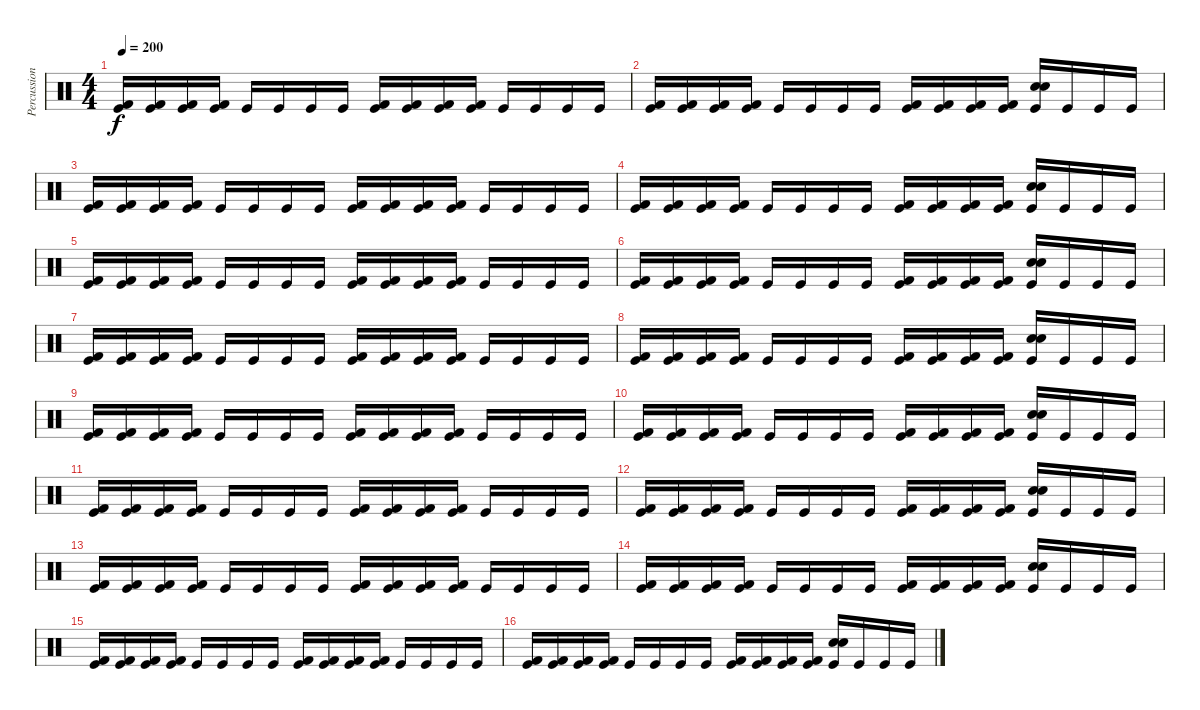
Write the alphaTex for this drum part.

\track ("Percussion" "Percussion") {instrument percussion}
\staff {score}
\articulation defaults
\ts (4 4)
\tempo 200
\clef neutral
\ks c
("Kick (hit) 2" "Kick (hit)").16{dy f} ("Kick (hit) 2" "Kick (hit)").16 ("Kick (hit) 2" "Kick (hit)").16 ("Kick (hit) 2" "Kick (hit)").16 "Kick (hit)".16 "Kick (hit)".16 "Kick (hit)".16 "Kick (hit)".16 ("Kick (hit) 2" "Kick (hit)").16 ("Kick (hit) 2" "Kick (hit)").16 ("Kick (hit) 2" "Kick (hit)").16 ("Kick (hit) 2" "Kick (hit)").16 "Kick (hit)".16 "Kick (hit)".16 "Kick (hit)".16 "Kick (hit)".16 |
("Kick (hit) 2" "Kick (hit)").16 ("Kick (hit) 2" "Kick (hit)").16 ("Kick (hit) 2" "Kick (hit)").16 ("Kick (hit) 2" "Kick (hit)").16 "Kick (hit)".16 "Kick (hit)".16 "Kick (hit)".16 "Kick (hit)".16 ("Kick (hit) 2" "Kick (hit)").16 ("Kick (hit) 2" "Kick (hit)").16 ("Kick (hit) 2" "Kick (hit)").16 ("Kick (hit) 2" "Kick (hit)").16 ("Snare (hit) 2" "Snare (hit) 2" "Kick (hit)").16 "Kick (hit)".16 "Kick (hit)".16 "Kick (hit)".16 |
("Kick (hit) 2" "Kick (hit)").16 ("Kick (hit) 2" "Kick (hit)").16 ("Kick (hit) 2" "Kick (hit)").16 ("Kick (hit) 2" "Kick (hit)").16 "Kick (hit)".16 "Kick (hit)".16 "Kick (hit)".16 "Kick (hit)".16 ("Kick (hit) 2" "Kick (hit)").16 ("Kick (hit) 2" "Kick (hit)").16 ("Kick (hit) 2" "Kick (hit)").16 ("Kick (hit) 2" "Kick (hit)").16 "Kick (hit)".16 "Kick (hit)".16 "Kick (hit)".16 "Kick (hit)".16 |
("Kick (hit) 2" "Kick (hit)").16 ("Kick (hit) 2" "Kick (hit)").16 ("Kick (hit) 2" "Kick (hit)").16 ("Kick (hit) 2" "Kick (hit)").16 "Kick (hit)".16 "Kick (hit)".16 "Kick (hit)".16 "Kick (hit)".16 ("Kick (hit) 2" "Kick (hit)").16 ("Kick (hit) 2" "Kick (hit)").16 ("Kick (hit) 2" "Kick (hit)").16 ("Kick (hit) 2" "Kick (hit)").16 ("Snare (hit) 2" "Snare (hit) 2" "Kick (hit)").16 "Kick (hit)".16 "Kick (hit)".16 "Kick (hit)".16 |
("Kick (hit) 2" "Kick (hit)").16 ("Kick (hit) 2" "Kick (hit)").16 ("Kick (hit) 2" "Kick (hit)").16 ("Kick (hit) 2" "Kick (hit)").16 "Kick (hit)".16 "Kick (hit)".16 "Kick (hit)".16 "Kick (hit)".16 ("Kick (hit) 2" "Kick (hit)").16 ("Kick (hit) 2" "Kick (hit)").16 ("Kick (hit) 2" "Kick (hit)").16 ("Kick (hit) 2" "Kick (hit)").16 "Kick (hit)".16 "Kick (hit)".16 "Kick (hit)".16 "Kick (hit)".16 |
("Kick (hit) 2" "Kick (hit)").16 ("Kick (hit) 2" "Kick (hit)").16 ("Kick (hit) 2" "Kick (hit)").16 ("Kick (hit) 2" "Kick (hit)").16 "Kick (hit)".16 "Kick (hit)".16 "Kick (hit)".16 "Kick (hit)".16 ("Kick (hit) 2" "Kick (hit)").16 ("Kick (hit) 2" "Kick (hit)").16 ("Kick (hit) 2" "Kick (hit)").16 ("Kick (hit) 2" "Kick (hit)").16 ("Snare (hit) 2" "Snare (hit) 2" "Kick (hit)").16 "Kick (hit)".16 "Kick (hit)".16 "Kick (hit)".16 |
("Kick (hit) 2" "Kick (hit)").16 ("Kick (hit) 2" "Kick (hit)").16 ("Kick (hit) 2" "Kick (hit)").16 ("Kick (hit) 2" "Kick (hit)").16 "Kick (hit)".16 "Kick (hit)".16 "Kick (hit)".16 "Kick (hit)".16 ("Kick (hit) 2" "Kick (hit)").16 ("Kick (hit) 2" "Kick (hit)").16 ("Kick (hit) 2" "Kick (hit)").16 ("Kick (hit) 2" "Kick (hit)").16 "Kick (hit)".16 "Kick (hit)".16 "Kick (hit)".16 "Kick (hit)".16 |
("Kick (hit) 2" "Kick (hit)").16 ("Kick (hit) 2" "Kick (hit)").16 ("Kick (hit) 2" "Kick (hit)").16 ("Kick (hit) 2" "Kick (hit)").16 "Kick (hit)".16 "Kick (hit)".16 "Kick (hit)".16 "Kick (hit)".16 ("Kick (hit) 2" "Kick (hit)").16 ("Kick (hit) 2" "Kick (hit)").16 ("Kick (hit) 2" "Kick (hit)").16 ("Kick (hit) 2" "Kick (hit)").16 ("Snare (hit) 2" "Snare (hit) 2" "Kick (hit)").16 "Kick (hit)".16 "Kick (hit)".16 "Kick (hit)".16 |
("Kick (hit) 2" "Kick (hit)").16 ("Kick (hit) 2" "Kick (hit)").16 ("Kick (hit) 2" "Kick (hit)").16 ("Kick (hit) 2" "Kick (hit)").16 "Kick (hit)".16 "Kick (hit)".16 "Kick (hit)".16 "Kick (hit)".16 ("Kick (hit) 2" "Kick (hit)").16 ("Kick (hit) 2" "Kick (hit)").16 ("Kick (hit) 2" "Kick (hit)").16 ("Kick (hit) 2" "Kick (hit)").16 "Kick (hit)".16 "Kick (hit)".16 "Kick (hit)".16 "Kick (hit)".16 |
("Kick (hit) 2" "Kick (hit)").16 ("Kick (hit) 2" "Kick (hit)").16 ("Kick (hit) 2" "Kick (hit)").16 ("Kick (hit) 2" "Kick (hit)").16 "Kick (hit)".16 "Kick (hit)".16 "Kick (hit)".16 "Kick (hit)".16 ("Kick (hit) 2" "Kick (hit)").16 ("Kick (hit) 2" "Kick (hit)").16 ("Kick (hit) 2" "Kick (hit)").16 ("Kick (hit) 2" "Kick (hit)").16 ("Snare (hit) 2" "Snare (hit) 2" "Kick (hit)").16 "Kick (hit)".16 "Kick (hit)".16 "Kick (hit)".16 |
("Kick (hit) 2" "Kick (hit)").16 ("Kick (hit) 2" "Kick (hit)").16 ("Kick (hit) 2" "Kick (hit)").16 ("Kick (hit) 2" "Kick (hit)").16 "Kick (hit)".16 "Kick (hit)".16 "Kick (hit)".16 "Kick (hit)".16 ("Kick (hit) 2" "Kick (hit)").16 ("Kick (hit) 2" "Kick (hit)").16 ("Kick (hit) 2" "Kick (hit)").16 ("Kick (hit) 2" "Kick (hit)").16 "Kick (hit)".16 "Kick (hit)".16 "Kick (hit)".16 "Kick (hit)".16 |
("Kick (hit) 2" "Kick (hit)").16 ("Kick (hit) 2" "Kick (hit)").16 ("Kick (hit) 2" "Kick (hit)").16 ("Kick (hit) 2" "Kick (hit)").16 "Kick (hit)".16 "Kick (hit)".16 "Kick (hit)".16 "Kick (hit)".16 ("Kick (hit) 2" "Kick (hit)").16 ("Kick (hit) 2" "Kick (hit)").16 ("Kick (hit) 2" "Kick (hit)").16 ("Kick (hit) 2" "Kick (hit)").16 ("Snare (hit) 2" "Snare (hit) 2" "Kick (hit)").16 "Kick (hit)".16 "Kick (hit)".16 "Kick (hit)".16 |
("Kick (hit) 2" "Kick (hit)").16 ("Kick (hit) 2" "Kick (hit)").16 ("Kick (hit) 2" "Kick (hit)").16 ("Kick (hit) 2" "Kick (hit)").16 "Kick (hit)".16 "Kick (hit)".16 "Kick (hit)".16 "Kick (hit)".16 ("Kick (hit) 2" "Kick (hit)").16 ("Kick (hit) 2" "Kick (hit)").16 ("Kick (hit) 2" "Kick (hit)").16 ("Kick (hit) 2" "Kick (hit)").16 "Kick (hit)".16 "Kick (hit)".16 "Kick (hit)".16 "Kick (hit)".16 |
("Kick (hit) 2" "Kick (hit)").16 ("Kick (hit) 2" "Kick (hit)").16 ("Kick (hit) 2" "Kick (hit)").16 ("Kick (hit) 2" "Kick (hit)").16 "Kick (hit)".16 "Kick (hit)".16 "Kick (hit)".16 "Kick (hit)".16 ("Kick (hit) 2" "Kick (hit)").16 ("Kick (hit) 2" "Kick (hit)").16 ("Kick (hit) 2" "Kick (hit)").16 ("Kick (hit) 2" "Kick (hit)").16 ("Snare (hit) 2" "Snare (hit) 2" "Kick (hit)").16 "Kick (hit)".16 "Kick (hit)".16 "Kick (hit)".16 |
("Kick (hit) 2" "Kick (hit)").16 ("Kick (hit) 2" "Kick (hit)").16 ("Kick (hit) 2" "Kick (hit)").16 ("Kick (hit) 2" "Kick (hit)").16 "Kick (hit)".16 "Kick (hit)".16 "Kick (hit)".16 "Kick (hit)".16 ("Kick (hit) 2" "Kick (hit)").16 ("Kick (hit) 2" "Kick (hit)").16 ("Kick (hit) 2" "Kick (hit)").16 ("Kick (hit) 2" "Kick (hit)").16 "Kick (hit)".16 "Kick (hit)".16 "Kick (hit)".16 "Kick (hit)".16 |
("Kick (hit) 2" "Kick (hit)").16 ("Kick (hit) 2" "Kick (hit)").16 ("Kick (hit) 2" "Kick (hit)").16 ("Kick (hit) 2" "Kick (hit)").16 "Kick (hit)".16 "Kick (hit)".16 "Kick (hit)".16 "Kick (hit)".16 ("Kick (hit) 2" "Kick (hit)").16 ("Kick (hit) 2" "Kick (hit)").16 ("Kick (hit) 2" "Kick (hit)").16 ("Kick (hit) 2" "Kick (hit)").16 ("Snare (hit) 2" "Snare (hit) 2" "Kick (hit)").16 "Kick (hit)".16 "Kick (hit)".16 "Kick (hit)".16
